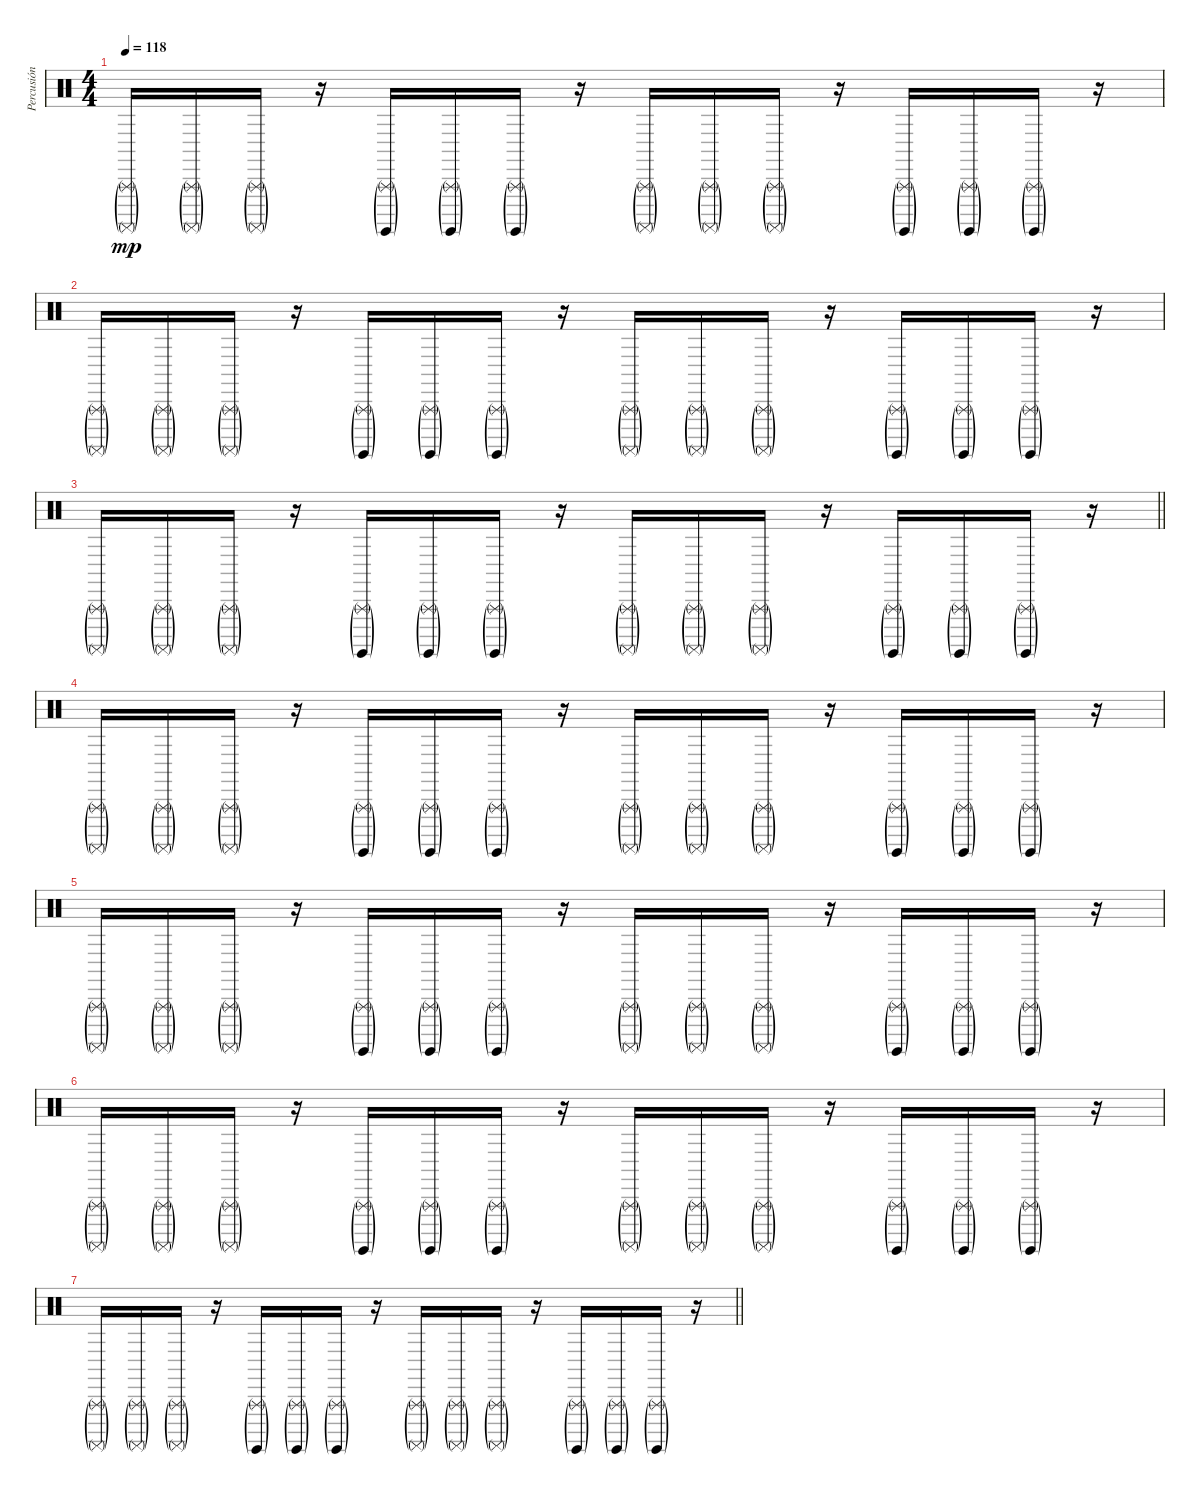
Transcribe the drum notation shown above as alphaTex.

\track ("Percusión" "Percusión") {instrument percussion}
\staff {score}
\articulation defaults
\ts (4 4)
\tempo 118
\clef neutral
\ks c
("Triangle (rnute)"{g} "Surdo (mute)"{g}).16{dy mp} ("Triangle (rnute)"{g} "Surdo (mute)"{g}).16 ("Triangle (rnute)"{g} "Surdo (mute)"{g}).16 r.16 ("Triangle (rnute)"{g} "Surdo (hit)"{g}).16 ("Triangle (rnute)"{g} "Surdo (hit)"{g}).16 ("Triangle (rnute)"{g} "Surdo (hit)"{g}).16 r.16 ("Triangle (rnute)"{g} "Surdo (mute)"{g}).16 ("Triangle (rnute)"{g} "Surdo (mute)"{g}).16 ("Triangle (rnute)"{g} "Surdo (mute)"{g}).16 r.16 ("Triangle (rnute)"{g} "Surdo (hit)"{g}).16 ("Triangle (rnute)"{g} "Surdo (hit)"{g}).16 ("Triangle (rnute)"{g} "Surdo (hit)"{g}).16 r.16 |
("Triangle (rnute)"{g} "Surdo (mute)"{g}).16 ("Triangle (rnute)"{g} "Surdo (mute)"{g}).16 ("Triangle (rnute)"{g} "Surdo (mute)"{g}).16 r.16 ("Triangle (rnute)"{g} "Surdo (hit)"{g}).16 ("Triangle (rnute)"{g} "Surdo (hit)"{g}).16 ("Triangle (rnute)"{g} "Surdo (hit)"{g}).16 r.16 ("Triangle (rnute)"{g} "Surdo (mute)"{g}).16 ("Triangle (rnute)"{g} "Surdo (mute)"{g}).16 ("Triangle (rnute)"{g} "Surdo (mute)"{g}).16 r.16 ("Triangle (rnute)"{g} "Surdo (hit)"{g}).16 ("Triangle (rnute)"{g} "Surdo (hit)"{g}).16 ("Triangle (rnute)"{g} "Surdo (hit)"{g}).16 r.16 |
\barLineRight lightlight
("Triangle (rnute)"{g} "Surdo (mute)"{g}).16 ("Triangle (rnute)"{g} "Surdo (mute)"{g}).16 ("Triangle (rnute)"{g} "Surdo (mute)"{g}).16 r.16 ("Triangle (rnute)"{g} "Surdo (hit)"{g}).16 ("Triangle (rnute)"{g} "Surdo (hit)"{g}).16 ("Triangle (rnute)"{g} "Surdo (hit)"{g}).16 r.16 ("Triangle (rnute)"{g} "Surdo (mute)"{g}).16 ("Triangle (rnute)"{g} "Surdo (mute)"{g}).16 ("Triangle (rnute)"{g} "Surdo (mute)"{g}).16 r.16 ("Triangle (rnute)"{g} "Surdo (hit)"{g}).16 ("Triangle (rnute)"{g} "Surdo (hit)"{g}).16 ("Triangle (rnute)"{g} "Surdo (hit)"{g}).16 r.16 |
("Triangle (rnute)"{g} "Surdo (mute)"{g}).16 ("Triangle (rnute)"{g} "Surdo (mute)"{g}).16 ("Triangle (rnute)"{g} "Surdo (mute)"{g}).16 r.16 ("Triangle (rnute)"{g} "Surdo (hit)"{g}).16 ("Triangle (rnute)"{g} "Surdo (hit)"{g}).16 ("Triangle (rnute)"{g} "Surdo (hit)"{g}).16 r.16 ("Triangle (rnute)"{g} "Surdo (mute)"{g}).16 ("Triangle (rnute)"{g} "Surdo (mute)"{g}).16 ("Triangle (rnute)"{g} "Surdo (mute)"{g}).16 r.16 ("Triangle (rnute)"{g} "Surdo (hit)"{g}).16 ("Triangle (rnute)"{g} "Surdo (hit)"{g}).16 ("Triangle (rnute)"{g} "Surdo (hit)"{g}).16 r.16 |
("Triangle (rnute)"{g} "Surdo (mute)"{g}).16 ("Triangle (rnute)"{g} "Surdo (mute)"{g}).16 ("Triangle (rnute)"{g} "Surdo (mute)"{g}).16 r.16 ("Triangle (rnute)"{g} "Surdo (hit)"{g}).16 ("Triangle (rnute)"{g} "Surdo (hit)"{g}).16 ("Triangle (rnute)"{g} "Surdo (hit)"{g}).16 r.16 ("Triangle (rnute)"{g} "Surdo (mute)"{g}).16 ("Triangle (rnute)"{g} "Surdo (mute)"{g}).16 ("Triangle (rnute)"{g} "Surdo (mute)"{g}).16 r.16 ("Triangle (rnute)"{g} "Surdo (hit)"{g}).16 ("Triangle (rnute)"{g} "Surdo (hit)"{g}).16 ("Triangle (rnute)"{g} "Surdo (hit)"{g}).16 r.16 |
("Triangle (rnute)"{g} "Surdo (mute)"{g}).16 ("Triangle (rnute)"{g} "Surdo (mute)"{g}).16 ("Triangle (rnute)"{g} "Surdo (mute)"{g}).16 r.16 ("Triangle (rnute)"{g} "Surdo (hit)"{g}).16 ("Triangle (rnute)"{g} "Surdo (hit)"{g}).16 ("Triangle (rnute)"{g} "Surdo (hit)"{g}).16 r.16 ("Triangle (rnute)"{g} "Surdo (mute)"{g}).16 ("Triangle (rnute)"{g} "Surdo (mute)"{g}).16 ("Triangle (rnute)"{g} "Surdo (mute)"{g}).16 r.16 ("Triangle (rnute)"{g} "Surdo (hit)"{g}).16 ("Triangle (rnute)"{g} "Surdo (hit)"{g}).16 ("Triangle (rnute)"{g} "Surdo (hit)"{g}).16 r.16 |
\barLineRight lightlight
("Triangle (rnute)"{g} "Surdo (mute)"{g}).16 ("Triangle (rnute)"{g} "Surdo (mute)"{g}).16 ("Triangle (rnute)"{g} "Surdo (mute)"{g}).16 r.16 ("Triangle (rnute)"{g} "Surdo (hit)"{g}).16 ("Triangle (rnute)"{g} "Surdo (hit)"{g}).16 ("Triangle (rnute)"{g} "Surdo (hit)"{g}).16 r.16 ("Triangle (rnute)"{g} "Surdo (mute)"{g}).16 ("Triangle (rnute)"{g} "Surdo (mute)"{g}).16 ("Triangle (rnute)"{g} "Surdo (mute)"{g}).16 r.16 ("Triangle (rnute)"{g} "Surdo (hit)"{g}).16 ("Triangle (rnute)"{g} "Surdo (hit)"{g}).16 ("Triangle (rnute)"{g} "Surdo (hit)"{g}).16 r.16
